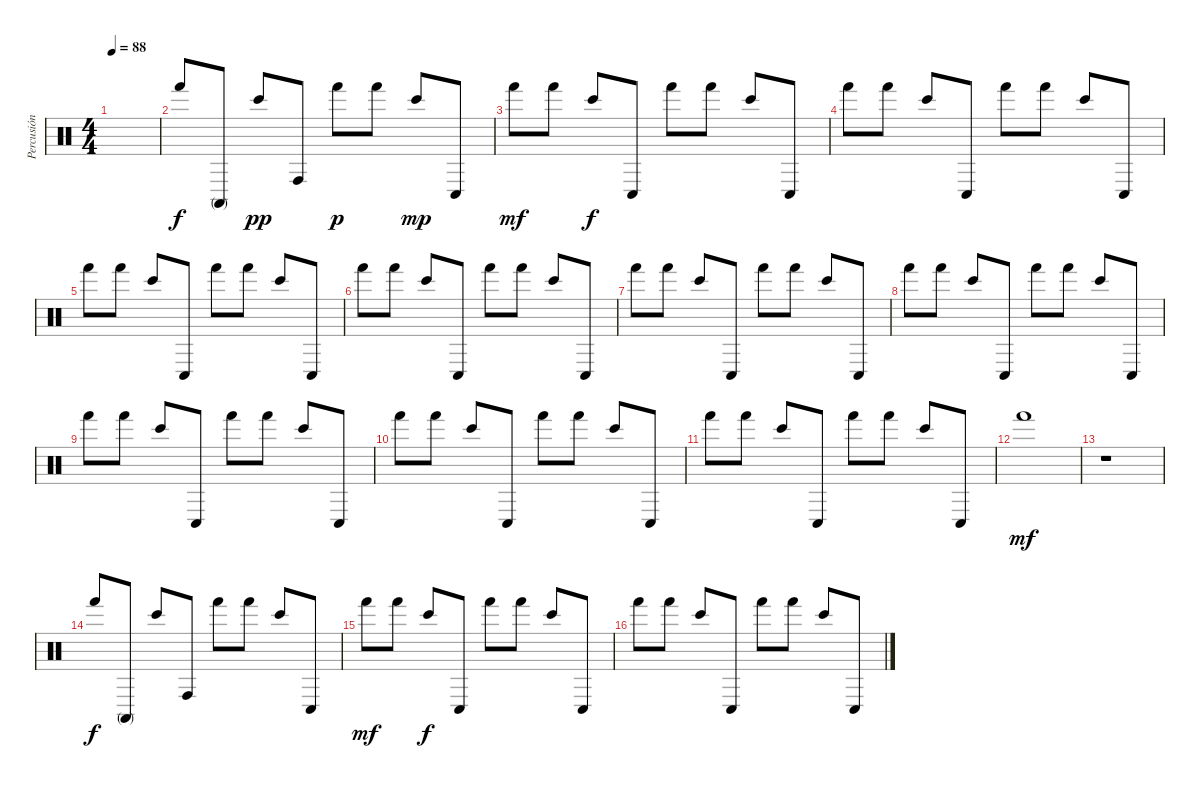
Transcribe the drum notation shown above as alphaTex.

\track ("Percusión" "Percusión") {instrument percussion}
\staff {score}
\articulation defaults
\ts (4 4)
\tempo 88
\clef neutral
\ks c
|
"Hand (hit)".8 "Conga high (mute)".8 "Bongo High (hit)".8{dy pp} "Conga high (hit)".8 "Hand (hit)".8{dy p} "Hand (hit)".8 "Bongo High (hit)".8{dy mp} "Conga low (hit)".8 |
"Hand (hit)".8{dy mf} "Hand (hit)".8 "Bongo High (hit)".8{dy f} "Conga low (hit)".8 "Hand (hit)".8 "Hand (hit)".8 "Bongo High (hit)".8 "Conga low (hit)".8 |
"Hand (hit)".8 "Hand (hit)".8 "Bongo High (hit)".8 "Conga low (hit)".8 "Hand (hit)".8 "Hand (hit)".8 "Bongo High (hit)".8 "Conga low (hit)".8 |
"Hand (hit)".8 "Hand (hit)".8 "Bongo High (hit)".8 "Conga low (hit)".8 "Hand (hit)".8 "Hand (hit)".8 "Bongo High (hit)".8 "Conga low (hit)".8 |
"Hand (hit)".8 "Hand (hit)".8 "Bongo High (hit)".8 "Conga low (hit)".8 "Hand (hit)".8 "Hand (hit)".8 "Bongo High (hit)".8 "Conga low (hit)".8 |
"Hand (hit)".8 "Hand (hit)".8 "Bongo High (hit)".8 "Conga low (hit)".8 "Hand (hit)".8 "Hand (hit)".8 "Bongo High (hit)".8 "Conga low (hit)".8 |
"Hand (hit)".8 "Hand (hit)".8 "Bongo High (hit)".8 "Conga low (hit)".8 "Hand (hit)".8 "Hand (hit)".8 "Bongo High (hit)".8 "Conga low (hit)".8 |
"Hand (hit)".8 "Hand (hit)".8 "Bongo High (hit)".8 "Conga low (hit)".8 "Hand (hit)".8 "Hand (hit)".8 "Bongo High (hit)".8 "Conga low (hit)".8 |
"Hand (hit)".8 "Hand (hit)".8 "Bongo High (hit)".8 "Conga low (hit)".8 "Hand (hit)".8 "Hand (hit)".8 "Bongo High (hit)".8 "Conga low (hit)".8 |
"Hand (hit)".8 "Hand (hit)".8 "Bongo High (hit)".8 "Conga low (hit)".8 "Hand (hit)".8 "Hand (hit)".8 "Bongo High (hit)".8 "Conga low (hit)".8 |
"Hand (hit)".1{dy mf} |
r.1 |
"Hand (hit)".8{dy f} "Conga high (mute)".8 "Bongo High (hit)".8 "Conga high (hit)".8 "Hand (hit)".8 "Hand (hit)".8 "Bongo High (hit)".8 "Conga low (hit)".8 |
"Hand (hit)".8{dy mf} "Hand (hit)".8 "Bongo High (hit)".8{dy f} "Conga low (hit)".8 "Hand (hit)".8 "Hand (hit)".8 "Bongo High (hit)".8 "Conga low (hit)".8 |
"Hand (hit)".8 "Hand (hit)".8 "Bongo High (hit)".8 "Conga low (hit)".8 "Hand (hit)".8 "Hand (hit)".8 "Bongo High (hit)".8 "Conga low (hit)".8
